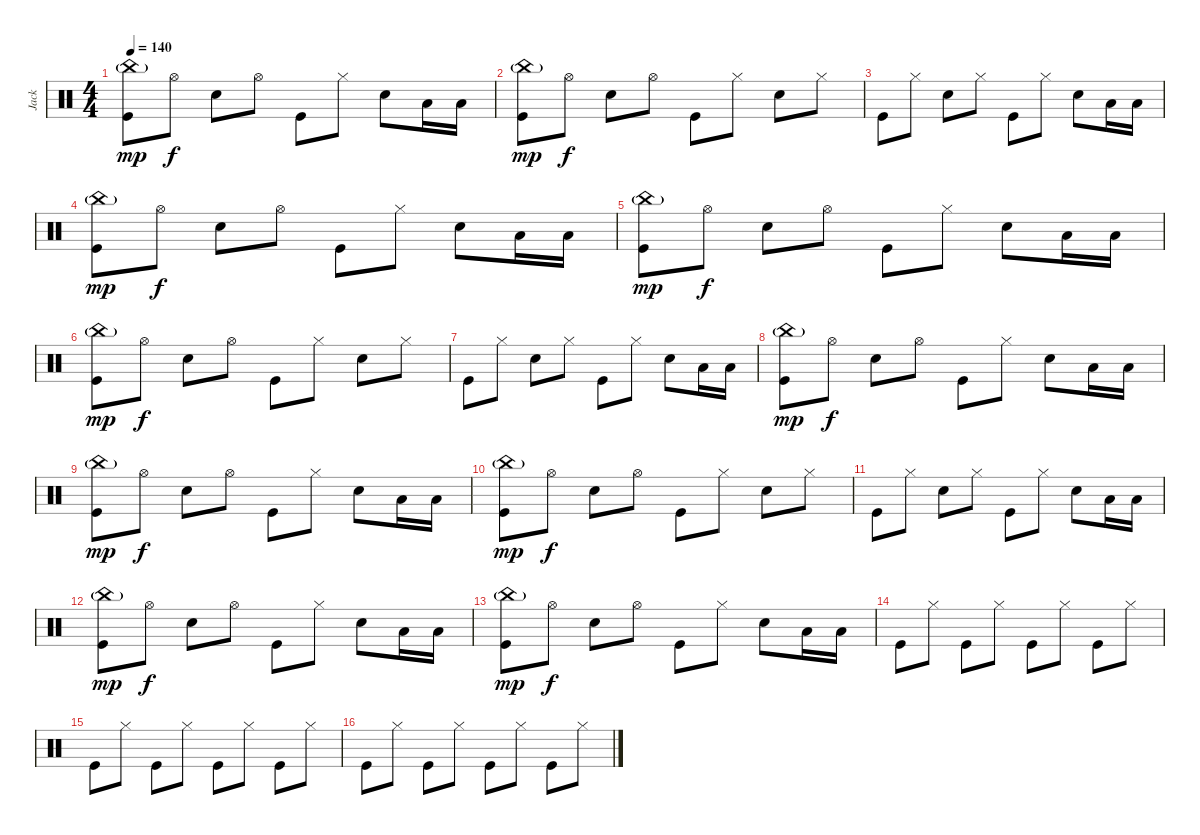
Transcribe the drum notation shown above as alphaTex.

\track ("Jack" "Jack") {instrument percussion}
\staff {score}
\articulation defaults
\ts (4 4)
\tempo 140
\clef neutral
\ks c
("China (hit)"{g} "Kick (hit)").8{dy mp} "Hi-Hat (open)".8{dy f} "Snare (hit) 2".8 "Hi-Hat (open)".8 "Kick (hit)".8 "Hi-Hat (closed)".8 "Snare (hit) 2".8 "Low Tom (hit)".16 "Low Floor Tom (hit)".16 |
("China (hit)"{g} "Kick (hit)").8{dy mp} "Hi-Hat (open)".8{dy f} "Snare (hit) 2".8 "Hi-Hat (open)".8 "Kick (hit)".8 "Hi-Hat (closed)".8 "Snare (hit) 2".8 "Hi-Hat (closed)".8 |
"Kick (hit)".8 "Hi-Hat (closed)".8 "Snare (hit) 2".8 "Hi-Hat (closed)".8 "Kick (hit)".8 "Hi-Hat (closed)".8 "Snare (hit) 2".8 "Low Tom (hit)".16 "Low Floor Tom (hit)".16 |
("China (hit)"{g} "Kick (hit)").8{dy mp} "Hi-Hat (open)".8{dy f} "Snare (hit) 2".8 "Hi-Hat (open)".8 "Kick (hit)".8 "Hi-Hat (closed)".8 "Snare (hit) 2".8 "Low Tom (hit)".16 "Low Floor Tom (hit)".16 |
("China (hit)"{g} "Kick (hit)").8{dy mp} "Hi-Hat (open)".8{dy f} "Snare (hit) 2".8 "Hi-Hat (open)".8 "Kick (hit)".8 "Hi-Hat (closed)".8 "Snare (hit) 2".8 "Low Tom (hit)".16 "Low Floor Tom (hit)".16 |
("China (hit)"{g} "Kick (hit)").8{dy mp} "Hi-Hat (open)".8{dy f} "Snare (hit) 2".8 "Hi-Hat (open)".8 "Kick (hit)".8 "Hi-Hat (closed)".8 "Snare (hit) 2".8 "Hi-Hat (closed)".8 |
"Kick (hit)".8 "Hi-Hat (closed)".8 "Snare (hit) 2".8 "Hi-Hat (closed)".8 "Kick (hit)".8 "Hi-Hat (closed)".8 "Snare (hit) 2".8 "Low Tom (hit)".16 "Low Floor Tom (hit)".16 |
("China (hit)"{g} "Kick (hit)").8{dy mp} "Hi-Hat (open)".8{dy f} "Snare (hit) 2".8 "Hi-Hat (open)".8 "Kick (hit)".8 "Hi-Hat (closed)".8 "Snare (hit) 2".8 "Low Tom (hit)".16 "Low Floor Tom (hit)".16 |
("China (hit)"{g} "Kick (hit)").8{dy mp} "Hi-Hat (open)".8{dy f} "Snare (hit) 2".8 "Hi-Hat (open)".8 "Kick (hit)".8 "Hi-Hat (closed)".8 "Snare (hit) 2".8 "Low Tom (hit)".16 "Low Floor Tom (hit)".16 |
("China (hit)"{g} "Kick (hit)").8{dy mp} "Hi-Hat (open)".8{dy f} "Snare (hit) 2".8 "Hi-Hat (open)".8 "Kick (hit)".8 "Hi-Hat (closed)".8 "Snare (hit) 2".8 "Hi-Hat (closed)".8 |
"Kick (hit)".8 "Hi-Hat (closed)".8 "Snare (hit) 2".8 "Hi-Hat (closed)".8 "Kick (hit)".8 "Hi-Hat (closed)".8 "Snare (hit) 2".8 "Low Tom (hit)".16 "Low Floor Tom (hit)".16 |
("China (hit)"{g} "Kick (hit)").8{dy mp} "Hi-Hat (open)".8{dy f} "Snare (hit) 2".8 "Hi-Hat (open)".8 "Kick (hit)".8 "Hi-Hat (closed)".8 "Snare (hit) 2".8 "Low Tom (hit)".16 "Low Floor Tom (hit)".16 |
("China (hit)"{g} "Kick (hit)").8{dy mp} "Hi-Hat (open)".8{dy f} "Snare (hit) 2".8 "Hi-Hat (open)".8 "Kick (hit)".8 "Hi-Hat (closed)".8 "Snare (hit) 2".8 "Low Tom (hit)".16 "Low Floor Tom (hit)".16 |
"Kick (hit)".8 "Hi-Hat (closed)".8 "Kick (hit)".8 "Hi-Hat (closed)".8 "Kick (hit)".8 "Hi-Hat (closed)".8 "Kick (hit)".8 "Hi-Hat (closed)".8 |
"Kick (hit)".8 "Hi-Hat (closed)".8 "Kick (hit)".8 "Hi-Hat (closed)".8 "Kick (hit)".8 "Hi-Hat (closed)".8 "Kick (hit)".8 "Hi-Hat (closed)".8 |
"Kick (hit)".8 "Hi-Hat (closed)".8 "Kick (hit)".8 "Hi-Hat (closed)".8 "Kick (hit)".8 "Hi-Hat (closed)".8 "Kick (hit)".8 "Hi-Hat (closed)".8
